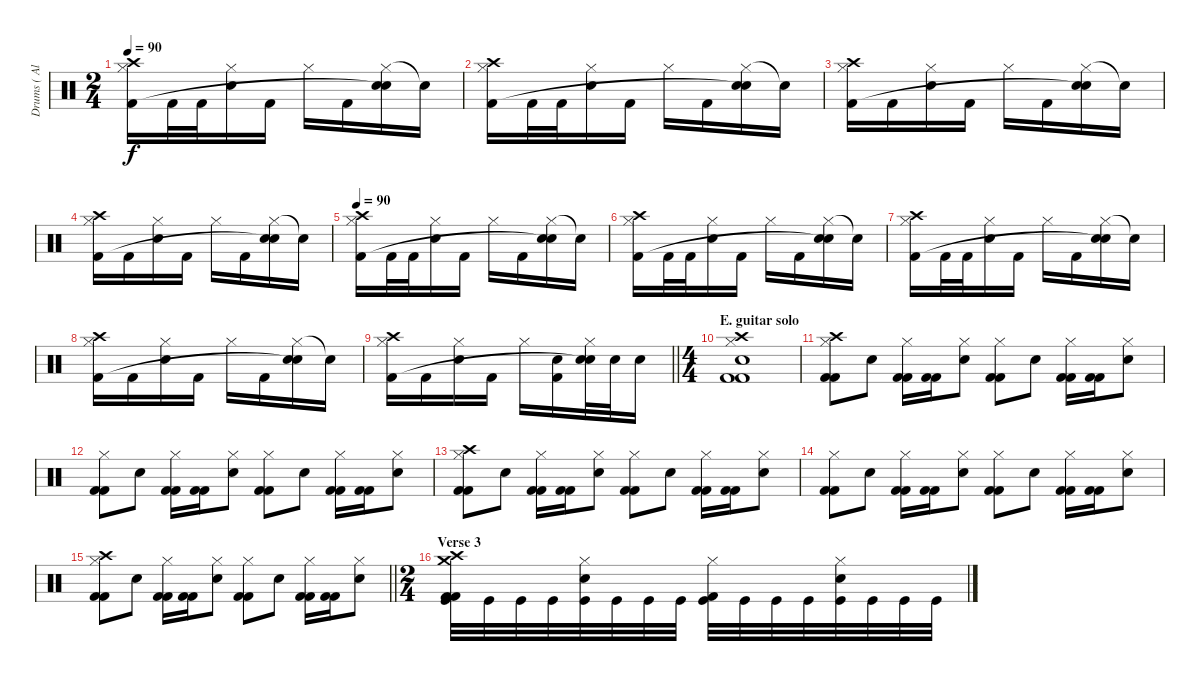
\track ("Drums ( Alex Holzwarth)" "Drums ( Al") {instrument percussion}
\staff {score}
\articulation defaults
\ts (2 4)
\tempo 90
\clef neutral
\ks c
("Crash high (hit)" "Hi-Hat (closed)" "Kick (hit) 2").16{dy f} "Kick (hit) 2".32 "Kick (hit) 2".32 ("Hi-Hat (closed)" "Electric Snare (hit)").16 "Kick (hit) 2".16 "Hi-Hat (closed)".16 "Kick (hit) 2".16 ("Hi-Hat (closed)" "Electric Snare (hit)" "Snare (hit)"{t}).16 "Snare (hit)"{t}.16 |
("Crash high (hit)" "Hi-Hat (closed)" "Kick (hit) 2").16 "Kick (hit) 2".32 "Kick (hit) 2".32 ("Hi-Hat (closed)" "Electric Snare (hit)").16 "Kick (hit) 2".16 "Hi-Hat (closed)".16 "Kick (hit) 2".16 ("Hi-Hat (closed)" "Electric Snare (hit)" "Snare (hit)"{t}).16 "Snare (hit)"{t}.16 |
("Crash high (hit)" "Hi-Hat (closed)" "Kick (hit) 2").16 "Kick (hit) 2".16 ("Hi-Hat (closed)" "Electric Snare (hit)").16 "Kick (hit) 2".16 "Hi-Hat (closed)".16 "Kick (hit) 2".16 ("Hi-Hat (closed)" "Electric Snare (hit)" "Snare (hit)"{t}).16 "Snare (hit)"{t}.16 |
("Crash high (hit)" "Hi-Hat (closed)" "Kick (hit) 2").16 "Kick (hit) 2".16 ("Hi-Hat (closed)" "Electric Snare (hit)").16 "Kick (hit) 2".16 "Hi-Hat (closed)".16 "Kick (hit) 2".16 ("Hi-Hat (closed)" "Electric Snare (hit)" "Snare (hit)"{t}).16 "Snare (hit)"{t}.16 |
\tempo 90
("Crash high (hit)" "Hi-Hat (closed)" "Kick (hit) 2").16 "Kick (hit) 2".32 "Kick (hit) 2".32 ("Hi-Hat (closed)" "Electric Snare (hit)").16 "Kick (hit) 2".16 "Hi-Hat (closed)".16 "Kick (hit) 2".16 ("Hi-Hat (closed)" "Electric Snare (hit)" "Snare (hit)"{t}).16 "Snare (hit)"{t}.16 |
("Crash high (hit)" "Hi-Hat (closed)" "Kick (hit) 2").16 "Kick (hit) 2".32 "Kick (hit) 2".32 ("Hi-Hat (closed)" "Electric Snare (hit)").16 "Kick (hit) 2".16 "Hi-Hat (closed)".16 "Kick (hit) 2".16 ("Hi-Hat (closed)" "Electric Snare (hit)" "Snare (hit)"{t}).16 "Snare (hit)"{t}.16 |
("Crash high (hit)" "Hi-Hat (closed)" "Kick (hit) 2").16 "Kick (hit) 2".32 "Kick (hit) 2".32 ("Hi-Hat (closed)" "Electric Snare (hit)").16 "Kick (hit) 2".16 "Hi-Hat (closed)".16 "Kick (hit) 2".16 ("Hi-Hat (closed)" "Electric Snare (hit)" "Snare (hit)"{t}).16 "Snare (hit)"{t}.16 |
("Crash high (hit)" "Hi-Hat (closed)" "Kick (hit) 2").16 "Kick (hit) 2".16 ("Hi-Hat (closed)" "Electric Snare (hit)").16 "Kick (hit) 2".16 "Hi-Hat (closed)".16 "Kick (hit) 2".16 ("Hi-Hat (closed)" "Electric Snare (hit)" "Snare (hit)"{t}).16 "Snare (hit)"{t}.16 |
\barLineRight lightlight
("Crash high (hit)" "Hi-Hat (closed)" "Kick (hit) 2").16 "Kick (hit) 2".16 ("Hi-Hat (closed)" "Electric Snare (hit)").16 "Kick (hit) 2".16 "Hi-Hat (closed)".16 ("Electric Snare (hit)" "Kick (hit) 2").16 ("Hi-Hat (closed)" "Electric Snare (hit)" "Snare (hit)"{t}).32 "Electric Snare (hit)".32 "Electric Snare (hit)".16 |
\ts (4 4)
\section ("" "E. guitar solo")
("Crash high (hit)" "Hi-Hat (closed)" "Electric Snare (hit)" "Kick (hit) 2" "Kick (hit) 2").1 |
("Crash high (hit)" "Hi-Hat (closed)" "Kick (hit) 2" "Kick (hit) 2").8 "Electric Snare (hit)".8 ("Hi-Hat (closed)" "Kick (hit) 2" "Kick (hit) 2").16 ("Kick (hit) 2" "Kick (hit) 2").16 ("Hi-Hat (closed)" "Electric Snare (hit)").8 ("Hi-Hat (closed)" "Kick (hit) 2" "Kick (hit) 2").8 "Electric Snare (hit)".8 ("Hi-Hat (closed)" "Kick (hit) 2" "Kick (hit) 2").16 ("Kick (hit) 2" "Kick (hit) 2").16 ("Hi-Hat (closed)" "Electric Snare (hit)").8 |
("Hi-Hat (closed)" "Kick (hit) 2" "Kick (hit) 2").8 "Electric Snare (hit)".8 ("Hi-Hat (closed)" "Kick (hit) 2" "Kick (hit) 2").16 ("Kick (hit) 2" "Kick (hit) 2").16 ("Hi-Hat (closed)" "Electric Snare (hit)").8 ("Hi-Hat (closed)" "Kick (hit) 2" "Kick (hit) 2").8 "Electric Snare (hit)".8 ("Hi-Hat (closed)" "Kick (hit) 2" "Kick (hit) 2").16 ("Kick (hit) 2" "Kick (hit) 2").16 ("Hi-Hat (closed)" "Electric Snare (hit)").8 |
("Crash high (hit)" "Hi-Hat (closed)" "Kick (hit) 2" "Kick (hit) 2").8 "Electric Snare (hit)".8 ("Hi-Hat (closed)" "Kick (hit) 2" "Kick (hit) 2").16 ("Kick (hit) 2" "Kick (hit) 2").16 ("Hi-Hat (closed)" "Electric Snare (hit)").8 ("Hi-Hat (closed)" "Kick (hit) 2" "Kick (hit) 2").8 "Electric Snare (hit)".8 ("Hi-Hat (closed)" "Kick (hit) 2" "Kick (hit) 2").16 ("Kick (hit) 2" "Kick (hit) 2").16 ("Hi-Hat (closed)" "Electric Snare (hit)").8 |
("Hi-Hat (closed)" "Kick (hit) 2" "Kick (hit) 2").8 "Electric Snare (hit)".8 ("Hi-Hat (closed)" "Kick (hit) 2" "Kick (hit) 2").16 ("Kick (hit) 2" "Kick (hit) 2").16 ("Hi-Hat (closed)" "Electric Snare (hit)").8 ("Hi-Hat (closed)" "Kick (hit) 2" "Kick (hit) 2").8 "Electric Snare (hit)".8 ("Hi-Hat (closed)" "Kick (hit) 2" "Kick (hit) 2").16 ("Kick (hit) 2" "Kick (hit) 2").16 ("Hi-Hat (closed)" "Electric Snare (hit)").8 |
\barLineRight lightlight
("Crash high (hit)" "Hi-Hat (closed)" "Kick (hit) 2" "Kick (hit) 2").8 "Electric Snare (hit)".8 ("Hi-Hat (closed)" "Kick (hit) 2" "Kick (hit) 2").16 ("Kick (hit) 2" "Kick (hit) 2").16 ("Hi-Hat (closed)" "Electric Snare (hit)").8 ("Hi-Hat (closed)" "Kick (hit) 2" "Kick (hit) 2").8 "Electric Snare (hit)".8 ("Hi-Hat (closed)" "Kick (hit) 2" "Kick (hit) 2").16 ("Kick (hit) 2" "Kick (hit) 2").16 ("Hi-Hat (closed)" "Electric Snare (hit)").8 |
\ts (2 4)
\section ("" "Verse 3")
("Crash high (hit)" "Crash medium (hit)" "Kick (hit) 2" "Kick (hit) 2" "Kick (hit)").32 "Kick (hit)".32 "Kick (hit)".32 "Kick (hit)".32 ("Hi-Hat (closed)" "Snare (hit) 2" "Kick (hit)").32 "Kick (hit)".32 "Kick (hit)".32 "Kick (hit)".32 ("Hi-Hat (closed)" "Kick (hit) 2" "Kick (hit)").32 "Kick (hit)".32 "Kick (hit)".32 "Kick (hit)".32 ("Hi-Hat (closed)" "Snare (hit) 2" "Kick (hit)").32 "Kick (hit)".32 "Kick (hit)".32 "Kick (hit)".32
